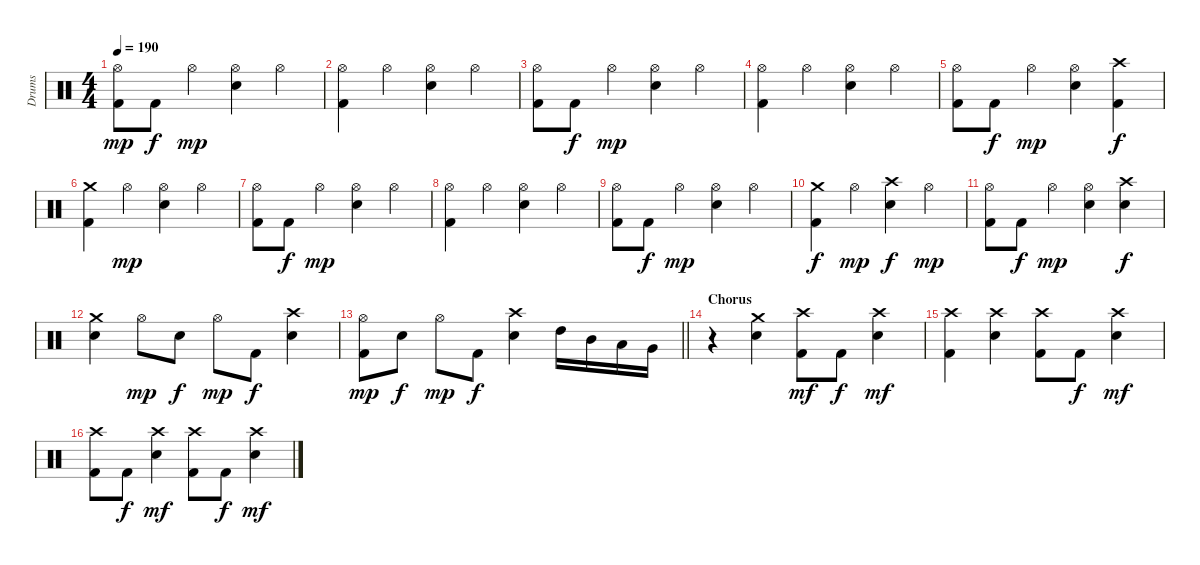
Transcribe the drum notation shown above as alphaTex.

\track ("Drums" "Drums") {instrument percussion}
\staff {score}
\articulation defaults
\ts (4 4)
\tempo 190
\clef neutral
\ks c
("Hi-Hat (open)" "Kick (hit) 2").8{dy mp} "Kick (hit) 2".8{dy f} "Hi-Hat (open)".4{dy mp} ("Hi-Hat (open)" "Snare (hit) 2").4 "Hi-Hat (open)".4 |
("Hi-Hat (open)" "Kick (hit) 2").4 "Hi-Hat (open)".4 ("Hi-Hat (open)" "Snare (hit) 2").4 "Hi-Hat (open)".4 |
("Hi-Hat (open)" "Kick (hit) 2").8 "Kick (hit) 2".8{dy f} "Hi-Hat (open)".4{dy mp} ("Hi-Hat (open)" "Snare (hit) 2").4 "Hi-Hat (open)".4 |
("Hi-Hat (open)" "Kick (hit) 2").4 "Hi-Hat (open)".4 ("Hi-Hat (open)" "Snare (hit) 2").4 "Hi-Hat (open)".4 |
("Hi-Hat (open)" "Kick (hit) 2").8 "Kick (hit) 2".8{dy f} "Hi-Hat (open)".4{dy mp} ("Hi-Hat (open)" "Snare (hit) 2").4 ("Crash high (hit)" "Kick (hit) 2").4{dy f} |
("Crash medium (hit)" "Kick (hit) 2").4 "Hi-Hat (open)".4{dy mp} ("Hi-Hat (open)" "Snare (hit) 2").4 "Hi-Hat (open)".4 |
("Hi-Hat (open)" "Kick (hit) 2").8 "Kick (hit) 2".8{dy f} "Hi-Hat (open)".4{dy mp} ("Hi-Hat (open)" "Snare (hit) 2").4 "Hi-Hat (open)".4 |
("Hi-Hat (open)" "Kick (hit) 2").4 "Hi-Hat (open)".4 ("Hi-Hat (open)" "Snare (hit) 2").4 "Hi-Hat (open)".4 |
("Hi-Hat (open)" "Kick (hit) 2").8 "Kick (hit) 2".8{dy f} "Hi-Hat (open)".4{dy mp} ("Hi-Hat (open)" "Snare (hit) 2").4 "Hi-Hat (open)".4 |
("Crash medium (hit)" "Kick (hit) 2").4{dy f} "Hi-Hat (open)".4{dy mp} ("Crash high (hit)" "Snare (hit) 2").4{dy f} "Hi-Hat (open)".4{dy mp} |
("Hi-Hat (open)" "Kick (hit) 2").8 "Kick (hit) 2".8{dy f} "Hi-Hat (open)".4{dy mp} ("Hi-Hat (open)" "Snare (hit) 2").4 ("Crash high (hit)" "Snare (hit) 2").4{dy f} |
("Crash medium (hit)" "Snare (hit) 2").4 "Hi-Hat (open)".8{dy mp} "Snare (hit) 2".8{dy f} "Hi-Hat (open)".8{dy mp} "Kick (hit) 2".8{dy f} ("Crash high (hit)" "Snare (hit) 2").4 |
\barLineRight lightlight
("Hi-Hat (open)" "Kick (hit) 2").8{dy mp} "Snare (hit) 2".8{dy f} "Hi-Hat (open)".8{dy mp} "Kick (hit) 2".8{dy f} ("Crash high (hit)" "Snare (hit) 2").4 "High Tom (hit)".16 "Mid Tom (hit)".16 "Low Tom (hit)".16 "Very Low Tom (hit)".16 |
\section ("" "Chorus")
r.4 ("Crash medium (hit)" "Snare (hit) 2").4 ("Crash high (hit)" "Kick (hit) 2").8{dy mf} "Kick (hit) 2".8{dy f} ("Crash high (hit)" "Snare (hit) 2").4{dy mf} |
("Crash high (hit)" "Kick (hit) 2").4 ("Crash high (hit)" "Snare (hit) 2").4 ("Crash high (hit)" "Kick (hit) 2").8 "Kick (hit) 2".8{dy f} ("Crash high (hit)" "Snare (hit) 2").4{dy mf} |
("Crash high (hit)" "Kick (hit) 2").8 "Kick (hit) 2".8{dy f} ("Crash high (hit)" "Snare (hit) 2").4{dy mf} ("Crash high (hit)" "Kick (hit) 2").8 "Kick (hit) 2".8{dy f} ("Crash high (hit)" "Snare (hit) 2").4{dy mf}
